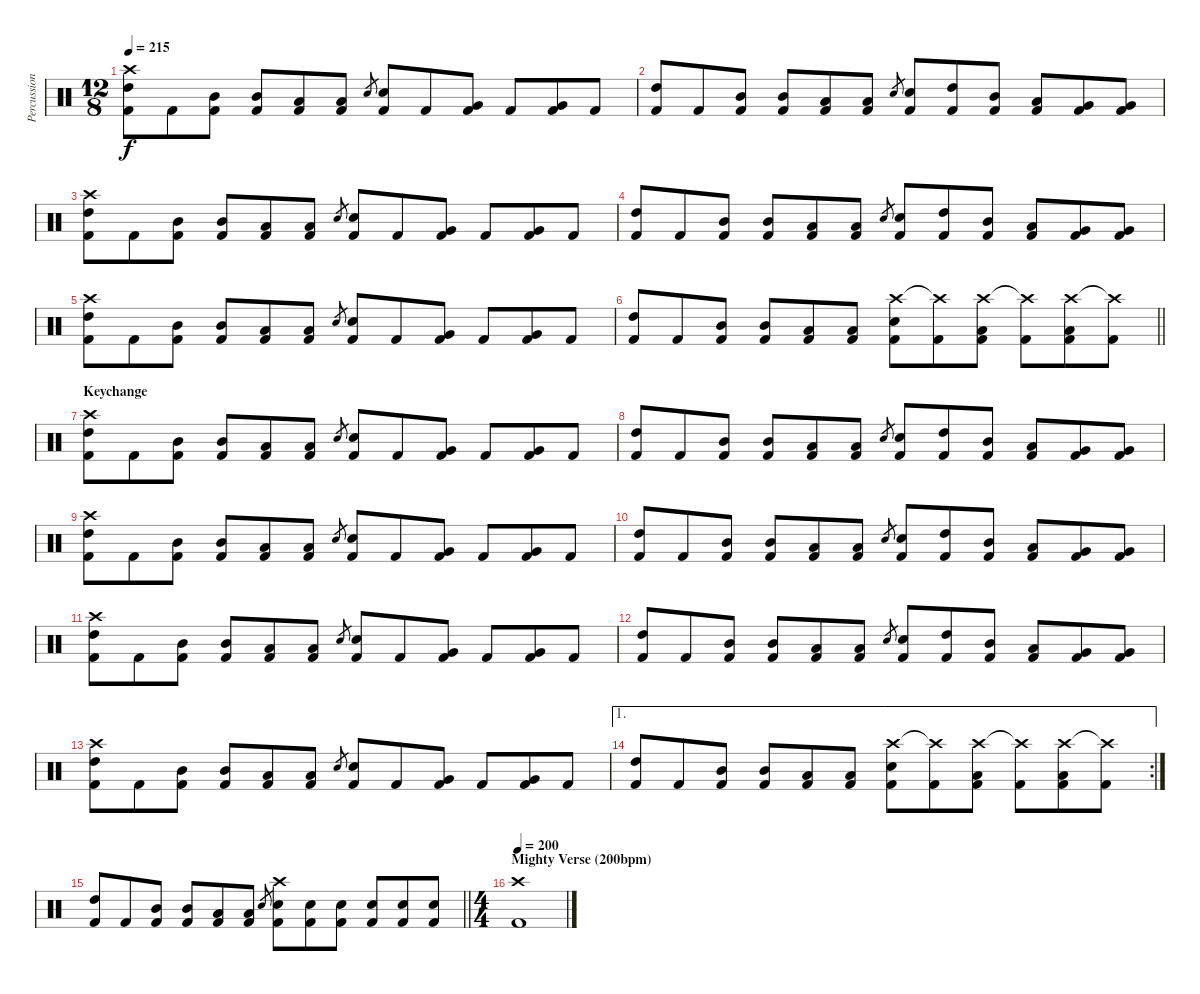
\track ("Percussion" "Percussion") {instrument percussion}
\staff {score}
\articulation defaults
\ts (12 8)
\tempo 215
\clef neutral
\ks c
("Crash high (hit)" "High Tom (hit)" "Kick (hit) 2").8{dy f} "Kick (hit) 2".8 ("Mid Tom (hit)" "Kick (hit) 2").8 ("Mid Tom (hit)" "Kick (hit) 2").8 ("Low Tom (hit)" "Kick (hit) 2").8 ("Low Tom (hit)" "Kick (hit) 2").8 "Snare (hit) 2".8{gr} ("Snare (hit) 2" "Kick (hit) 2").8 "Kick (hit) 2".8 ("Very Low Tom (hit)" "Kick (hit) 2").8 "Kick (hit) 2".8 ("Very Low Tom (hit)" "Kick (hit) 2").8 "Kick (hit) 2".8 |
("High Tom (hit)" "Kick (hit) 2").8 "Kick (hit) 2".8 ("Mid Tom (hit)" "Kick (hit) 2").8 ("Mid Tom (hit)" "Kick (hit) 2").8 ("Low Tom (hit)" "Kick (hit) 2").8 ("Low Tom (hit)" "Kick (hit) 2").8 "Snare (hit) 2".8{gr} ("Snare (hit) 2" "Kick (hit) 2").8 ("High Tom (hit)" "Kick (hit) 2").8 ("Mid Tom (hit)" "Kick (hit) 2").8 ("Low Tom (hit)" "Kick (hit) 2").8 ("Very Low Tom (hit)" "Kick (hit) 2").8 ("Very Low Tom (hit)" "Kick (hit) 2").8 |
("Crash high (hit)" "High Tom (hit)" "Kick (hit) 2").8 "Kick (hit) 2".8 ("Mid Tom (hit)" "Kick (hit) 2").8 ("Mid Tom (hit)" "Kick (hit) 2").8 ("Low Tom (hit)" "Kick (hit) 2").8 ("Low Tom (hit)" "Kick (hit) 2").8 "Snare (hit) 2".8{gr} ("Snare (hit) 2" "Kick (hit) 2").8 "Kick (hit) 2".8 ("Very Low Tom (hit)" "Kick (hit) 2").8 "Kick (hit) 2".8 ("Very Low Tom (hit)" "Kick (hit) 2").8 "Kick (hit) 2".8 |
("High Tom (hit)" "Kick (hit) 2").8 "Kick (hit) 2".8 ("Mid Tom (hit)" "Kick (hit) 2").8 ("Mid Tom (hit)" "Kick (hit) 2").8 ("Low Tom (hit)" "Kick (hit) 2").8 ("Low Tom (hit)" "Kick (hit) 2").8 "Snare (hit) 2".8{gr} ("Snare (hit) 2" "Kick (hit) 2").8 ("High Tom (hit)" "Kick (hit) 2").8 ("Mid Tom (hit)" "Kick (hit) 2").8 ("Low Tom (hit)" "Kick (hit) 2").8 ("Very Low Tom (hit)" "Kick (hit) 2").8 ("Very Low Tom (hit)" "Kick (hit) 2").8 |
("Crash high (hit)" "High Tom (hit)" "Kick (hit) 2").8 "Kick (hit) 2".8 ("Mid Tom (hit)" "Kick (hit) 2").8 ("Mid Tom (hit)" "Kick (hit) 2").8 ("Low Tom (hit)" "Kick (hit) 2").8 ("Low Tom (hit)" "Kick (hit) 2").8 "Snare (hit) 2".8{gr} ("Snare (hit) 2" "Kick (hit) 2").8 "Kick (hit) 2".8 ("Very Low Tom (hit)" "Kick (hit) 2").8 "Kick (hit) 2".8 ("Very Low Tom (hit)" "Kick (hit) 2").8 "Kick (hit) 2".8 |
\barLineRight lightlight
("High Tom (hit)" "Kick (hit) 2").8 "Kick (hit) 2".8 ("Mid Tom (hit)" "Kick (hit) 2").8 ("Mid Tom (hit)" "Kick (hit) 2").8 ("Low Tom (hit)" "Kick (hit) 2").8 ("Low Tom (hit)" "Kick (hit) 2").8 ("Crash high (hit)" "Snare (hit) 2" "Kick (hit) 2").8 ("Crash high (hit)"{t} "Kick (hit) 2").8 ("Crash high (hit)" "Low Tom (hit)" "Kick (hit) 2").8 ("Crash high (hit)"{t} "Kick (hit) 2").8 ("Crash high (hit)" "Low Tom (hit)" "Kick (hit) 2").8 ("Crash high (hit)"{t} "Kick (hit) 2").8 |
\section ("" "Keychange")
("Crash high (hit)" "High Tom (hit)" "Kick (hit) 2").8 "Kick (hit) 2".8 ("Mid Tom (hit)" "Kick (hit) 2").8 ("Mid Tom (hit)" "Kick (hit) 2").8 ("Low Tom (hit)" "Kick (hit) 2").8 ("Low Tom (hit)" "Kick (hit) 2").8 "Snare (hit) 2".8{gr} ("Snare (hit) 2" "Kick (hit) 2").8 "Kick (hit) 2".8 ("Very Low Tom (hit)" "Kick (hit) 2").8 "Kick (hit) 2".8 ("Very Low Tom (hit)" "Kick (hit) 2").8 "Kick (hit) 2".8 |
("High Tom (hit)" "Kick (hit) 2").8 "Kick (hit) 2".8 ("Mid Tom (hit)" "Kick (hit) 2").8 ("Mid Tom (hit)" "Kick (hit) 2").8 ("Low Tom (hit)" "Kick (hit) 2").8 ("Low Tom (hit)" "Kick (hit) 2").8 "Snare (hit) 2".8{gr} ("Snare (hit) 2" "Kick (hit) 2").8 ("High Tom (hit)" "Kick (hit) 2").8 ("Mid Tom (hit)" "Kick (hit) 2").8 ("Low Tom (hit)" "Kick (hit) 2").8 ("Very Low Tom (hit)" "Kick (hit) 2").8 ("Very Low Tom (hit)" "Kick (hit) 2").8 |
("Crash high (hit)" "High Tom (hit)" "Kick (hit) 2").8 "Kick (hit) 2".8 ("Mid Tom (hit)" "Kick (hit) 2").8 ("Mid Tom (hit)" "Kick (hit) 2").8 ("Low Tom (hit)" "Kick (hit) 2").8 ("Low Tom (hit)" "Kick (hit) 2").8 "Snare (hit) 2".8{gr} ("Snare (hit) 2" "Kick (hit) 2").8 "Kick (hit) 2".8 ("Very Low Tom (hit)" "Kick (hit) 2").8 "Kick (hit) 2".8 ("Very Low Tom (hit)" "Kick (hit) 2").8 "Kick (hit) 2".8 |
("High Tom (hit)" "Kick (hit) 2").8 "Kick (hit) 2".8 ("Mid Tom (hit)" "Kick (hit) 2").8 ("Mid Tom (hit)" "Kick (hit) 2").8 ("Low Tom (hit)" "Kick (hit) 2").8 ("Low Tom (hit)" "Kick (hit) 2").8 "Snare (hit) 2".8{gr} ("Snare (hit) 2" "Kick (hit) 2").8 ("High Tom (hit)" "Kick (hit) 2").8 ("Mid Tom (hit)" "Kick (hit) 2").8 ("Low Tom (hit)" "Kick (hit) 2").8 ("Very Low Tom (hit)" "Kick (hit) 2").8 ("Very Low Tom (hit)" "Kick (hit) 2").8 |
("Crash high (hit)" "High Tom (hit)" "Kick (hit) 2").8 "Kick (hit) 2".8 ("Mid Tom (hit)" "Kick (hit) 2").8 ("Mid Tom (hit)" "Kick (hit) 2").8 ("Low Tom (hit)" "Kick (hit) 2").8 ("Low Tom (hit)" "Kick (hit) 2").8 "Snare (hit) 2".8{gr} ("Snare (hit) 2" "Kick (hit) 2").8 "Kick (hit) 2".8 ("Very Low Tom (hit)" "Kick (hit) 2").8 "Kick (hit) 2".8 ("Very Low Tom (hit)" "Kick (hit) 2").8 "Kick (hit) 2".8 |
("High Tom (hit)" "Kick (hit) 2").8 "Kick (hit) 2".8 ("Mid Tom (hit)" "Kick (hit) 2").8 ("Mid Tom (hit)" "Kick (hit) 2").8 ("Low Tom (hit)" "Kick (hit) 2").8 ("Low Tom (hit)" "Kick (hit) 2").8 "Snare (hit) 2".8{gr} ("Snare (hit) 2" "Kick (hit) 2").8 ("High Tom (hit)" "Kick (hit) 2").8 ("Mid Tom (hit)" "Kick (hit) 2").8 ("Low Tom (hit)" "Kick (hit) 2").8 ("Very Low Tom (hit)" "Kick (hit) 2").8 ("Very Low Tom (hit)" "Kick (hit) 2").8 |
("Crash high (hit)" "High Tom (hit)" "Kick (hit) 2").8 "Kick (hit) 2".8 ("Mid Tom (hit)" "Kick (hit) 2").8 ("Mid Tom (hit)" "Kick (hit) 2").8 ("Low Tom (hit)" "Kick (hit) 2").8 ("Low Tom (hit)" "Kick (hit) 2").8 "Snare (hit) 2".8{gr} ("Snare (hit) 2" "Kick (hit) 2").8 "Kick (hit) 2".8 ("Very Low Tom (hit)" "Kick (hit) 2").8 "Kick (hit) 2".8 ("Very Low Tom (hit)" "Kick (hit) 2").8 "Kick (hit) 2".8 |
\ae 1
\rc 2
("High Tom (hit)" "Kick (hit) 2").8 "Kick (hit) 2".8 ("Mid Tom (hit)" "Kick (hit) 2").8 ("Mid Tom (hit)" "Kick (hit) 2").8 ("Low Tom (hit)" "Kick (hit) 2").8 ("Low Tom (hit)" "Kick (hit) 2").8 ("Crash high (hit)" "Snare (hit) 2" "Kick (hit) 2").8 ("Crash high (hit)"{t} "Kick (hit) 2").8 ("Crash high (hit)" "Low Tom (hit)" "Kick (hit) 2").8 ("Crash high (hit)"{t} "Kick (hit) 2").8 ("Crash high (hit)" "Low Tom (hit)" "Kick (hit) 2").8 ("Crash high (hit)"{t} "Kick (hit) 2").8 |
\barLineRight lightlight
("High Tom (hit)" "Kick (hit) 2").8 "Kick (hit) 2".8 ("Mid Tom (hit)" "Kick (hit) 2").8 ("Mid Tom (hit)" "Kick (hit) 2").8 ("Low Tom (hit)" "Kick (hit) 2").8 ("Low Tom (hit)" "Kick (hit) 2").8 "Snare (hit) 2".8{gr} ("Crash high (hit)" "Snare (hit) 2" "Kick (hit) 2").8 ("Snare (hit) 2" "Kick (hit) 2").8 ("Snare (hit) 2" "Kick (hit) 2").8 ("Snare (hit) 2" "Kick (hit) 2").8 ("Snare (hit) 2" "Kick (hit) 2").8 ("Snare (hit) 2" "Kick (hit) 2").8 |
\ts (4 4)
\section ("" "Mighty Verse (200bpm)")
\tempo 200
("Crash high (hit)" "Kick (hit) 2").1
